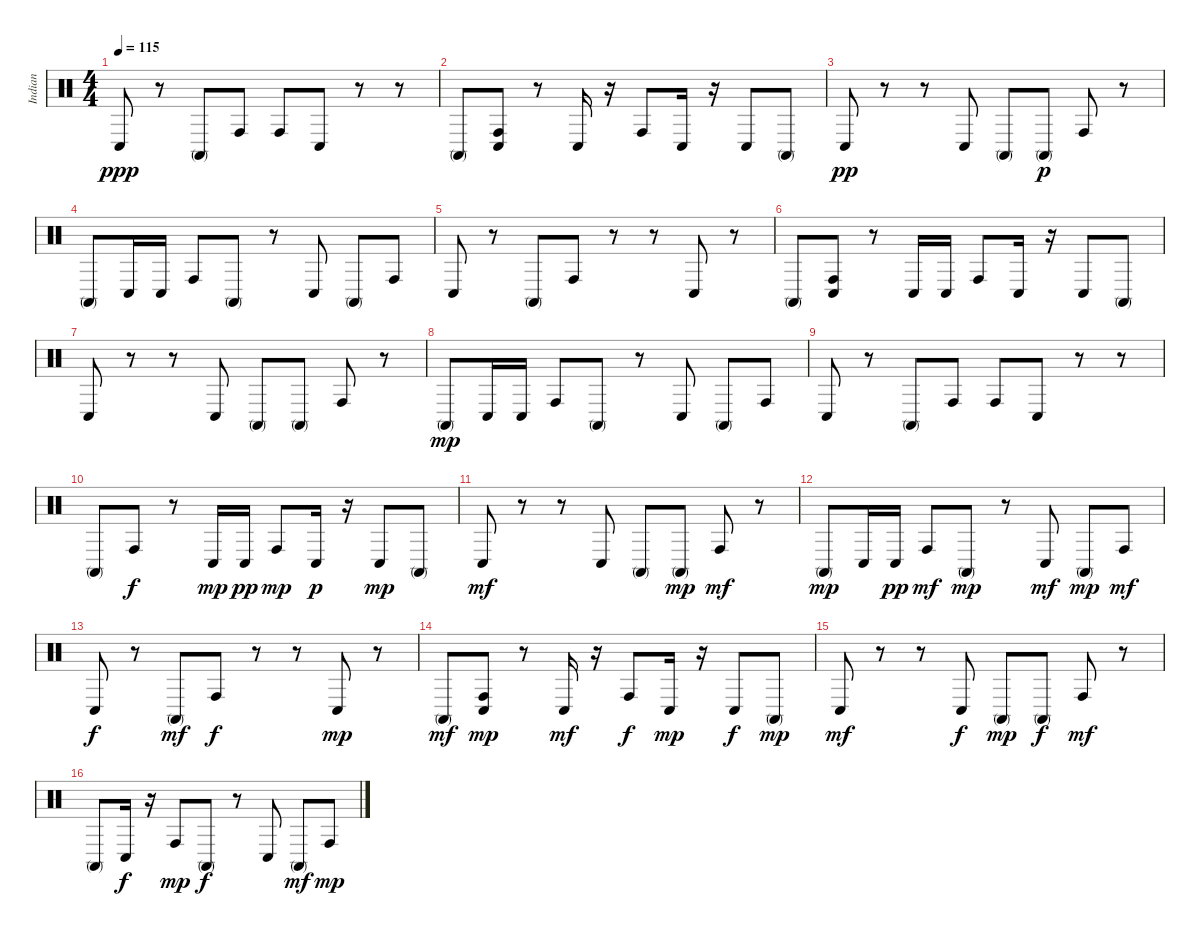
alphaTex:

\track ("Indian" "Indian") {instrument percussion}
\staff {score}
\articulation defaults
\ts (4 4)
\tempo 115
\clef neutral
\ks c "Conga low (hit)".8{dy ppp}
r.8 "Conga high (mute)".8 "Conga high (hit)".8 "Conga high (hit)".8 "Conga low (hit)".8 r.8 r.8 |
"Conga high (mute)".8 ("Conga high (hit)" "Conga low (hit)").8 r.8 "Conga low (hit)".16 r.16 "Conga high (hit)".8 "Conga low (hit)".16 r.16 "Conga low (hit)".8 "Conga high (mute)".8 |
"Conga low (hit)".8{dy pp} r.8 r.8 "Conga low (hit)".8 "Conga high (mute)".8 "Conga high (mute)".8{dy p} "Conga high (hit)".8 r.8 |
"Conga high (mute)".8 "Conga low (hit)".16 "Conga low (hit)".16 "Conga high (hit)".8 "Conga high (mute)".8 r.8 "Conga low (hit)".8 "Conga high (mute)".8 "Conga high (hit)".8 |
"Conga low (hit)".8 r.8 "Conga high (mute)".8 "Conga high (hit)".8 r.8 r.8 "Conga low (hit)".8 r.8 |
"Conga high (mute)".8 ("Conga high (hit)" "Conga low (hit)").8 r.8 "Conga low (hit)".16 "Conga low (hit)".16 "Conga high (hit)".8 "Conga low (hit)".16 r.16 "Conga low (hit)".8 "Conga high (mute)".8 |
"Conga low (hit)".8 r.8 r.8 "Conga low (hit)".8 "Conga high (mute)".8 "Conga high (mute)".8 "Conga high (hit)".8 r.8 |
"Conga high (mute)".8{dy mp} "Conga low (hit)".16 "Conga low (hit)".16 "Conga high (hit)".8 "Conga high (mute)".8 r.8 "Conga low (hit)".8 "Conga high (mute)".8 "Conga high (hit)".8 |
"Conga low (hit)".8 r.8 "Conga high (mute)".8 "Conga high (hit)".8 "Conga high (hit)".8 "Conga low (hit)".8 r.8 r.8 |
"Conga high (mute)".8 "Conga high (hit)".8{dy f} r.8 "Conga low (hit)".16{dy mp} "Conga low (hit)".16{dy pp} "Conga high (hit)".8{dy mp} "Conga low (hit)".16{dy p} r.16 "Conga low (hit)".8{dy mp} "Conga high (mute)".8 |
"Conga low (hit)".8{dy mf} r.8 r.8 "Conga low (hit)".8 "Conga high (mute)".8 "Conga high (mute)".8{dy mp} "Conga high (hit)".8{dy mf} r.8 |
"Conga high (mute)".8{dy mp} "Conga low (hit)".16 "Conga low (hit)".16{dy pp} "Conga high (hit)".8{dy mf} "Conga high (mute)".8{dy mp} r.8 "Conga low (hit)".8{dy mf} "Conga high (mute)".8{dy mp} "Conga high (hit)".8{dy mf} |
"Conga low (hit)".8{dy f} r.8 "Conga high (mute)".8{dy mf} "Conga high (hit)".8{dy f} r.8 r.8 "Conga low (hit)".8{dy mp} r.8 |
"Conga high (mute)".8{dy mf} ("Conga high (hit)" "Conga low (hit)").8{dy mp} r.8 "Conga low (hit)".16{dy mf} r.16 "Conga high (hit)".8{dy f} "Conga low (hit)".16{dy mp} r.16 "Conga low (hit)".8{dy f} "Conga high (mute)".8{dy mp} |
"Conga low (hit)".8{dy mf} r.8 r.8 "Conga low (hit)".8{dy f} "Conga high (mute)".8{dy mp} "Conga high (mute)".8{dy f} "Conga high (hit)".8{dy mf} r.8 |
"Conga high (mute)".8 "Conga low (hit)".16{dy f} r.16 "Conga high (hit)".8{dy mp} "Conga high (mute)".8{dy f} r.8 "Conga low (hit)".8 "Conga high (mute)".8{dy mf} "Conga high (hit)".8{dy mp}
